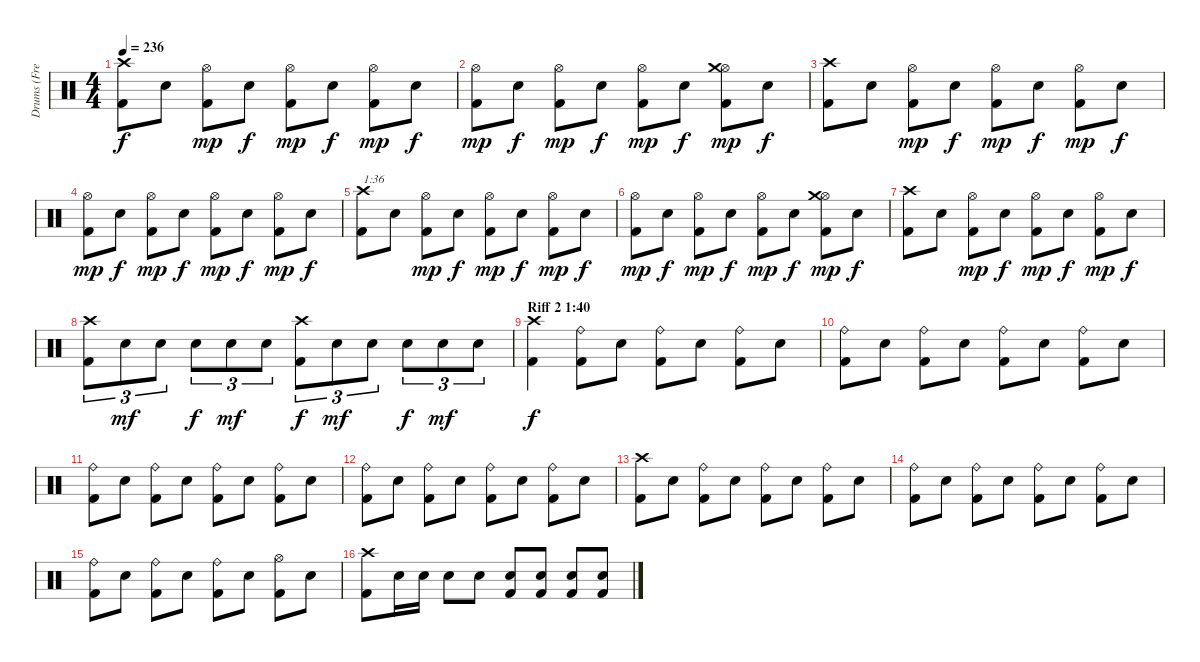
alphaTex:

\track ("Drums (Fred Estby)" "Drums (Fre") {instrument percussion}
\staff {score}
\articulation defaults
\ts (4 4)
\tempo 236
\clef neutral
\ks c
("Kick (hit) 2" "Crash high (hit)").8{dy f} "Electric Snare (hit)".8 ("Kick (hit) 2" "Hi-Hat (open)").8{dy mp} "Electric Snare (hit)".8{dy f} ("Kick (hit) 2" "Hi-Hat (open)").8{dy mp} "Electric Snare (hit)".8{dy f} ("Kick (hit) 2" "Hi-Hat (open)").8{dy mp} "Electric Snare (hit)".8{dy f} |
("Kick (hit) 2" "Hi-Hat (open)").8{dy mp} "Electric Snare (hit)".8{dy f} ("Kick (hit) 2" "Hi-Hat (open)").8{dy mp} "Electric Snare (hit)".8{dy f} ("Kick (hit) 2" "Hi-Hat (open)").8{dy mp} "Electric Snare (hit)".8{dy f} ("Kick (hit) 2" "Hi-Hat (open)" "Crash medium (hit)").8{dy mp} "Electric Snare (hit)".8{dy f} |
("Kick (hit) 2" "Crash high (hit)").8 "Electric Snare (hit)".8 ("Kick (hit) 2" "Hi-Hat (open)").8{dy mp} "Electric Snare (hit)".8{dy f} ("Kick (hit) 2" "Hi-Hat (open)").8{dy mp} "Electric Snare (hit)".8{dy f} ("Kick (hit) 2" "Hi-Hat (open)").8{dy mp} "Electric Snare (hit)".8{dy f} |
("Kick (hit) 2" "Hi-Hat (open)").8{dy mp} "Electric Snare (hit)".8{dy f} ("Kick (hit) 2" "Hi-Hat (open)").8{dy mp} "Electric Snare (hit)".8{dy f} ("Kick (hit) 2" "Hi-Hat (open)").8{dy mp} "Electric Snare (hit)".8{dy f} ("Kick (hit) 2" "Hi-Hat (open)").8{dy mp} "Electric Snare (hit)".8{dy f} |
("Kick (hit) 2" "Crash high (hit)").8{txt "1:36"} "Electric Snare (hit)".8 ("Kick (hit) 2" "Hi-Hat (open)").8{dy mp} "Electric Snare (hit)".8{dy f} ("Kick (hit) 2" "Hi-Hat (open)").8{dy mp} "Electric Snare (hit)".8{dy f} ("Kick (hit) 2" "Hi-Hat (open)").8{dy mp} "Electric Snare (hit)".8{dy f} |
("Kick (hit) 2" "Hi-Hat (open)").8{dy mp} "Electric Snare (hit)".8{dy f} ("Kick (hit) 2" "Hi-Hat (open)").8{dy mp} "Electric Snare (hit)".8{dy f} ("Kick (hit) 2" "Hi-Hat (open)").8{dy mp} "Electric Snare (hit)".8{dy f} ("Kick (hit) 2" "Hi-Hat (open)" "Crash medium (hit)").8{dy mp} "Electric Snare (hit)".8{dy f} |
("Kick (hit) 2" "Crash high (hit)").8 "Electric Snare (hit)".8 ("Kick (hit) 2" "Hi-Hat (open)").8{dy mp} "Electric Snare (hit)".8{dy f} ("Kick (hit) 2" "Hi-Hat (open)").8{dy mp} "Electric Snare (hit)".8{dy f} ("Kick (hit) 2" "Hi-Hat (open)").8{dy mp} "Electric Snare (hit)".8{dy f} |
("Kick (hit) 2" "Crash high (hit)").8{tu (3 2)} "Electric Snare (hit)".8{tu (3 2) dy mf} "Electric Snare (hit)".8{tu (3 2)} "Electric Snare (hit)".8{tu (3 2) dy f} "Electric Snare (hit)".8{tu (3 2) dy mf} "Electric Snare (hit)".8{tu (3 2)} ("Kick (hit) 2" "Crash high (hit)").8{tu (3 2) dy f} "Electric Snare (hit)".8{tu (3 2) dy mf} "Electric Snare (hit)".8{tu (3 2)} "Electric Snare (hit)".8{tu (3 2) dy f} "Electric Snare (hit)".8{tu (3 2) dy mf} "Electric Snare (hit)".8{tu (3 2)} |
\section ("" "Riff 2 1:40")
("Kick (hit) 2" "Crash high (hit)").4{dy f} ("Kick (hit) 2" "Ride (bell)").8 "Electric Snare (hit)".8 ("Kick (hit) 2" "Ride (bell)").8 "Electric Snare (hit)".8 ("Kick (hit) 2" "Ride (bell)").8 "Electric Snare (hit)".8 |
("Kick (hit) 2" "Ride (bell)").8 "Electric Snare (hit)".8 ("Kick (hit) 2" "Ride (bell)").8 "Electric Snare (hit)".8 ("Kick (hit) 2" "Ride (bell)").8 "Electric Snare (hit)".8 ("Kick (hit) 2" "Ride (bell)").8 "Electric Snare (hit)".8 |
("Kick (hit) 2" "Ride (bell)").8 "Electric Snare (hit)".8 ("Kick (hit) 2" "Ride (bell)").8 "Electric Snare (hit)".8 ("Kick (hit) 2" "Ride (bell)").8 "Electric Snare (hit)".8 ("Kick (hit) 2" "Ride (bell)").8 "Electric Snare (hit)".8 |
("Kick (hit) 2" "Ride (bell)").8 "Electric Snare (hit)".8 ("Kick (hit) 2" "Ride (bell)").8 "Electric Snare (hit)".8 ("Kick (hit) 2" "Ride (bell)").8 "Electric Snare (hit)".8 ("Kick (hit) 2" "Ride (bell)").8 "Electric Snare (hit)".8 |
("Kick (hit) 2" "Crash high (hit)").8 "Electric Snare (hit)".8 ("Kick (hit) 2" "Ride (bell)").8 "Electric Snare (hit)".8 ("Kick (hit) 2" "Ride (bell)").8 "Electric Snare (hit)".8 ("Kick (hit) 2" "Ride (bell)").8 "Electric Snare (hit)".8 |
("Kick (hit) 2" "Ride (bell)").8 "Electric Snare (hit)".8 ("Kick (hit) 2" "Ride (bell)").8 "Electric Snare (hit)".8 ("Kick (hit) 2" "Ride (bell)").8 "Electric Snare (hit)".8 ("Kick (hit) 2" "Ride (bell)").8 "Electric Snare (hit)".8 |
("Kick (hit) 2" "Ride (bell)").8 "Electric Snare (hit)".8 ("Kick (hit) 2" "Ride (bell)").8 "Electric Snare (hit)".8 ("Kick (hit) 2" "Ride (bell)").8 "Electric Snare (hit)".8 ("Kick (hit) 2" "Hi-Hat (open)").8 "Electric Snare (hit)".8 |
("Kick (hit) 2" "Crash high (hit)").8 "Electric Snare (hit)".16 "Electric Snare (hit)".16 "Electric Snare (hit)".8 "Electric Snare (hit)".8 ("Kick (hit) 2" "Electric Snare (hit)").8 ("Kick (hit) 2" "Electric Snare (hit)").8 ("Kick (hit) 2" "Electric Snare (hit)").8 ("Kick (hit) 2" "Electric Snare (hit)").8
